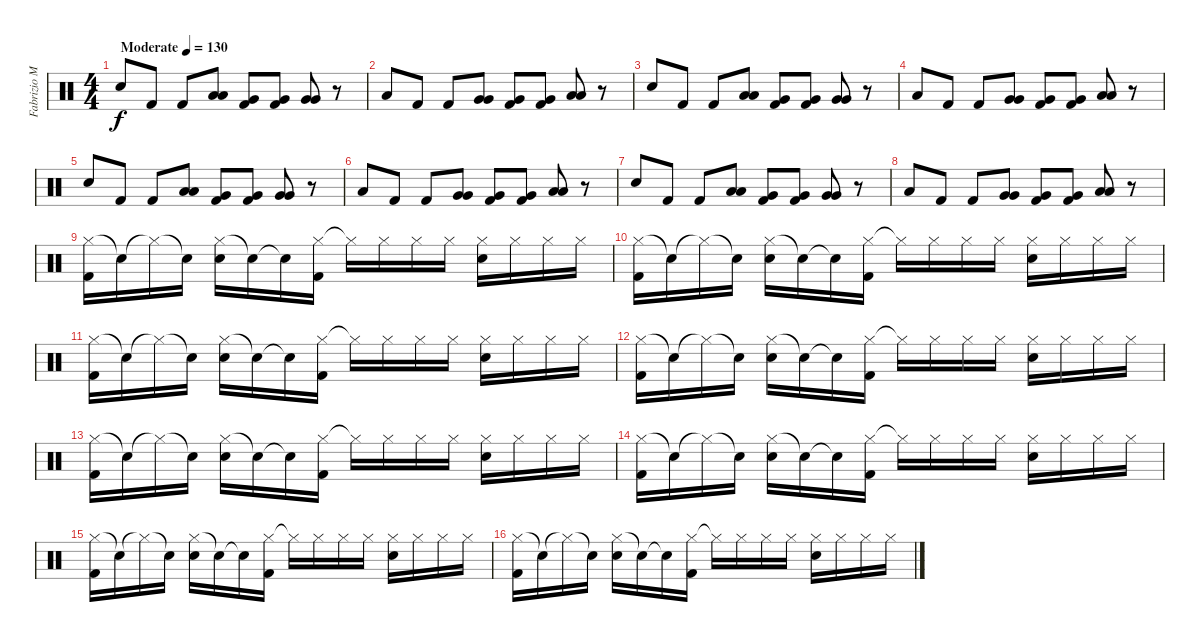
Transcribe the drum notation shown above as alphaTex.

\track ("Fabrizio Moretti" "Fabrizio M") {instrument percussion bank 127}
\staff {score}
\articulation defaults
\ts (4 4)
\tempo (130 "Moderate")
\clef neutral
\ks c "Electric Snare (hit)".8{dy f} "Kick (hit) 2".8 "Kick (hit) 2".8
("Low Tom (hit)" "Low Tom (hit)").8 ("Kick (hit) 2" "Very Low Tom (hit)").8 ("Kick (hit) 2" "Very Low Tom (hit)").8 ("Very Low Tom (hit)" "Very Low Tom (hit)").8 r.8 |
"Low Floor Tom (hit)".8 "Kick (hit) 2".8 "Kick (hit) 2".8 ("Very Low Tom (hit)" "Very Low Tom (hit)").8 ("Kick (hit) 2" "Very Low Tom (hit)").8 ("Kick (hit) 2" "Very Low Tom (hit)").8 ("Low Floor Tom (hit)" "Low Floor Tom (hit)").8 r.8 |
"Electric Snare (hit)".8 "Kick (hit) 2".8 "Kick (hit) 2".8 ("Low Tom (hit)" "Low Tom (hit)").8 ("Kick (hit) 2" "Very Low Tom (hit)").8 ("Kick (hit) 2" "Very Low Tom (hit)").8 ("Very Low Tom (hit)" "Very Low Tom (hit)").8 r.8 |
"Low Floor Tom (hit)".8 "Kick (hit) 2".8 "Kick (hit) 2".8 ("Very Low Tom (hit)" "Very Low Tom (hit)").8 ("Kick (hit) 2" "Very Low Tom (hit)").8 ("Kick (hit) 2" "Very Low Tom (hit)").8 ("Low Floor Tom (hit)" "Low Floor Tom (hit)").8 r.8 |
"Electric Snare (hit)".8 "Kick (hit) 2".8 "Kick (hit) 2".8 ("Low Tom (hit)" "Low Tom (hit)").8 ("Kick (hit) 2" "Very Low Tom (hit)").8 ("Kick (hit) 2" "Very Low Tom (hit)").8 ("Very Low Tom (hit)" "Very Low Tom (hit)").8 r.8 |
"Low Floor Tom (hit)".8 "Kick (hit) 2".8 "Kick (hit) 2".8 ("Very Low Tom (hit)" "Very Low Tom (hit)").8 ("Kick (hit) 2" "Very Low Tom (hit)").8 ("Kick (hit) 2" "Very Low Tom (hit)").8 ("Low Floor Tom (hit)" "Low Floor Tom (hit)").8 r.8 |
"Electric Snare (hit)".8 "Kick (hit) 2".8 "Kick (hit) 2".8 ("Low Tom (hit)" "Low Tom (hit)").8 ("Kick (hit) 2" "Very Low Tom (hit)").8 ("Kick (hit) 2" "Very Low Tom (hit)").8 ("Very Low Tom (hit)" "Very Low Tom (hit)").8 r.8 |
"Low Floor Tom (hit)".8 "Kick (hit) 2".8 "Kick (hit) 2".8 ("Very Low Tom (hit)" "Very Low Tom (hit)").8 ("Kick (hit) 2" "Very Low Tom (hit)").8 ("Kick (hit) 2" "Very Low Tom (hit)").8 ("Low Floor Tom (hit)" "Low Floor Tom (hit)").8 r.8 |
("Hi-Hat (closed)" "Kick (hit) 2").16 "Snare (hit)"{t}.16 "Hi-Hat (closed)"{t}.16 "Snare (hit)"{t}.16 ("Hi-Hat (closed)" "Electric Snare (hit)").16 "Snare (hit)"{t}.16 "Snare (hit)"{t}.16 ("Hi-Hat (closed)" "Kick (hit) 2").16 "Hi-Hat (closed)"{t}.16 "Hi-Hat (closed)".16 "Hi-Hat (closed)".16 "Hi-Hat (closed)".16 ("Hi-Hat (closed)" "Electric Snare (hit)").16 "Hi-Hat (closed)".16 "Hi-Hat (closed)".16 "Hi-Hat (closed)".16 |
("Hi-Hat (closed)" "Kick (hit) 2").16 "Snare (hit)"{t}.16 "Hi-Hat (closed)"{t}.16 "Snare (hit)"{t}.16 ("Hi-Hat (closed)" "Electric Snare (hit)").16 "Snare (hit)"{t}.16 "Snare (hit)"{t}.16 ("Hi-Hat (closed)" "Kick (hit) 2").16 "Hi-Hat (closed)"{t}.16 "Hi-Hat (closed)".16 "Hi-Hat (closed)".16 "Hi-Hat (closed)".16 ("Hi-Hat (closed)" "Electric Snare (hit)").16 "Hi-Hat (closed)".16 "Hi-Hat (closed)".16 "Hi-Hat (closed)".16 |
("Hi-Hat (closed)" "Kick (hit) 2").16 "Snare (hit)"{t}.16 "Hi-Hat (closed)"{t}.16 "Snare (hit)"{t}.16 ("Hi-Hat (closed)" "Electric Snare (hit)").16 "Snare (hit)"{t}.16 "Snare (hit)"{t}.16 ("Hi-Hat (closed)" "Kick (hit) 2").16 "Hi-Hat (closed)"{t}.16 "Hi-Hat (closed)".16 "Hi-Hat (closed)".16 "Hi-Hat (closed)".16 ("Hi-Hat (closed)" "Electric Snare (hit)").16 "Hi-Hat (closed)".16 "Hi-Hat (closed)".16 "Hi-Hat (closed)".16 |
("Hi-Hat (closed)" "Kick (hit) 2").16 "Snare (hit)"{t}.16 "Hi-Hat (closed)"{t}.16 "Snare (hit)"{t}.16 ("Hi-Hat (closed)" "Electric Snare (hit)").16 "Snare (hit)"{t}.16 "Snare (hit)"{t}.16 ("Hi-Hat (closed)" "Kick (hit) 2").16 "Hi-Hat (closed)"{t}.16 "Hi-Hat (closed)".16 "Hi-Hat (closed)".16 "Hi-Hat (closed)".16 ("Hi-Hat (closed)" "Electric Snare (hit)").16 "Hi-Hat (closed)".16 "Hi-Hat (closed)".16 "Hi-Hat (closed)".16 |
("Hi-Hat (closed)" "Kick (hit) 2").16 "Snare (hit)"{t}.16 "Hi-Hat (closed)"{t}.16 "Snare (hit)"{t}.16 ("Hi-Hat (closed)" "Electric Snare (hit)").16 "Snare (hit)"{t}.16 "Snare (hit)"{t}.16 ("Hi-Hat (closed)" "Kick (hit) 2").16 "Hi-Hat (closed)"{t}.16 "Hi-Hat (closed)".16 "Hi-Hat (closed)".16 "Hi-Hat (closed)".16 ("Hi-Hat (closed)" "Electric Snare (hit)").16 "Hi-Hat (closed)".16 "Hi-Hat (closed)".16 "Hi-Hat (closed)".16 |
("Hi-Hat (closed)" "Kick (hit) 2").16 "Snare (hit)"{t}.16 "Hi-Hat (closed)"{t}.16 "Snare (hit)"{t}.16 ("Hi-Hat (closed)" "Electric Snare (hit)").16 "Snare (hit)"{t}.16 "Snare (hit)"{t}.16 ("Hi-Hat (closed)" "Kick (hit) 2").16 "Hi-Hat (closed)"{t}.16 "Hi-Hat (closed)".16 "Hi-Hat (closed)".16 "Hi-Hat (closed)".16 ("Hi-Hat (closed)" "Electric Snare (hit)").16 "Hi-Hat (closed)".16 "Hi-Hat (closed)".16 "Hi-Hat (closed)".16 |
("Hi-Hat (closed)" "Kick (hit) 2").16 "Snare (hit)"{t}.16 "Hi-Hat (closed)"{t}.16 "Snare (hit)"{t}.16 ("Hi-Hat (closed)" "Electric Snare (hit)").16 "Snare (hit)"{t}.16 "Snare (hit)"{t}.16 ("Hi-Hat (closed)" "Kick (hit) 2").16 "Hi-Hat (closed)"{t}.16 "Hi-Hat (closed)".16 "Hi-Hat (closed)".16 "Hi-Hat (closed)".16 ("Hi-Hat (closed)" "Electric Snare (hit)").16 "Hi-Hat (closed)".16 "Hi-Hat (closed)".16 "Hi-Hat (closed)".16 |
("Hi-Hat (closed)" "Kick (hit) 2").16 "Snare (hit)"{t}.16 "Hi-Hat (closed)"{t}.16 "Snare (hit)"{t}.16 ("Hi-Hat (closed)" "Electric Snare (hit)").16 "Snare (hit)"{t}.16 "Snare (hit)"{t}.16 ("Hi-Hat (closed)" "Kick (hit) 2").16 "Hi-Hat (closed)"{t}.16 "Hi-Hat (closed)".16 "Hi-Hat (closed)".16 "Hi-Hat (closed)".16 ("Hi-Hat (closed)" "Electric Snare (hit)").16 "Hi-Hat (closed)".16 "Hi-Hat (closed)".16 "Hi-Hat (closed)".16
